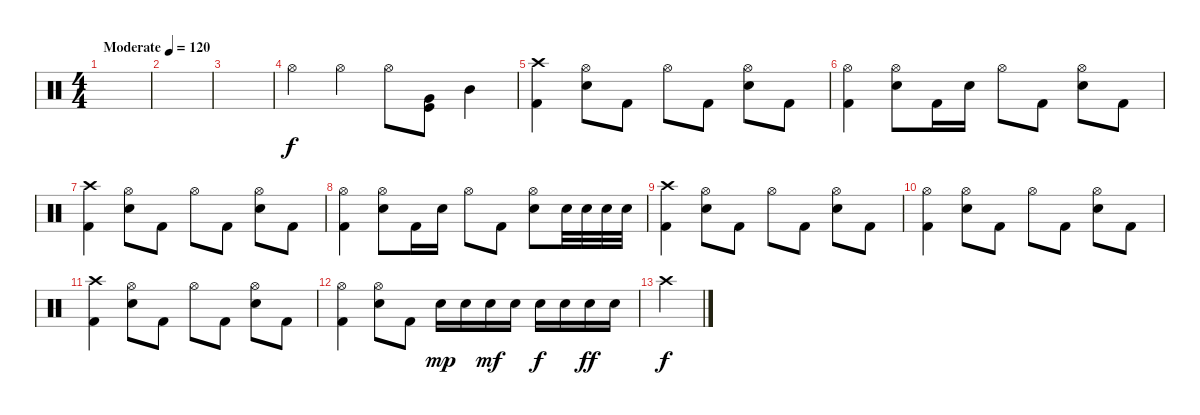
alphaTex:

\track "" {instrument percussion}
\staff {score}
\articulation defaults
\ts (4 4)
\tempo (120 "Moderate")
\clef neutral
\ks c
|
|
|
"Hi-Hat (open)".4{txt ""} "Hi-Hat (open)".4 "Hi-Hat (open)".8 ("Kick (hit)" "Very Low Tom (hit)").8{bd 240} "Mid Tom (hit)".4 |
("Crash high (hit)" "Kick (hit) 2").4 ("Hi-Hat (open)" "Snare (hit) 2").8 "Kick (hit) 2".8 "Hi-Hat (open)".8 "Kick (hit) 2".8 ("Hi-Hat (open)" "Snare (hit) 2").8 "Kick (hit) 2".8 |
("Hi-Hat (open)" "Kick (hit) 2").4 ("Hi-Hat (open)" "Snare (hit) 2").8 "Kick (hit) 2".16 "Snare (hit) 2".16 "Hi-Hat (open)".8 "Kick (hit) 2".8 ("Hi-Hat (open)" "Snare (hit) 2").8 "Kick (hit) 2".8 |
("Crash high (hit)" "Kick (hit) 2").4 ("Hi-Hat (open)" "Snare (hit) 2").8 "Kick (hit) 2".8 "Hi-Hat (open)".8 "Kick (hit) 2".8 ("Hi-Hat (open)" "Snare (hit) 2").8 "Kick (hit) 2".8 |
("Hi-Hat (open)" "Kick (hit) 2").4 ("Hi-Hat (open)" "Snare (hit) 2").8 "Kick (hit) 2".16 "Snare (hit) 2".16 "Hi-Hat (open)".8 "Kick (hit) 2".8 ("Hi-Hat (open)" "Snare (hit) 2").8 "Snare (hit) 2".32 "Snare (hit) 2".32 "Snare (hit) 2".32 "Snare (hit) 2".32 |
("Crash high (hit)" "Kick (hit) 2").4 ("Hi-Hat (open)" "Snare (hit) 2").8 "Kick (hit) 2".8 "Hi-Hat (open)".8 "Kick (hit) 2".8 ("Hi-Hat (open)" "Snare (hit) 2").8 "Kick (hit) 2".8 |
("Hi-Hat (open)" "Kick (hit) 2").4 ("Hi-Hat (open)" "Snare (hit) 2").8 "Kick (hit) 2".8 "Hi-Hat (open)".8 "Kick (hit) 2".8 ("Hi-Hat (open)" "Snare (hit) 2").8 "Kick (hit) 2".8 |
("Crash high (hit)" "Kick (hit) 2").4 ("Hi-Hat (open)" "Snare (hit) 2").8 "Kick (hit) 2".8 "Hi-Hat (open)".8 "Kick (hit) 2".8 ("Hi-Hat (open)" "Snare (hit) 2").8 "Kick (hit) 2".8 |
("Hi-Hat (open)" "Kick (hit) 2").4 ("Hi-Hat (open)" "Snare (hit) 2").8 "Kick (hit) 2".8 "Snare (hit) 2".16{dy mp} "Snare (hit) 2".16 "Snare (hit) 2".16{dy mf} "Snare (hit) 2".16 "Snare (hit) 2".16{dy f} "Snare (hit) 2".16 "Snare (hit) 2".16{dy ff} "Snare (hit) 2".16 |
"Crash high (hit)".4{dy f}
